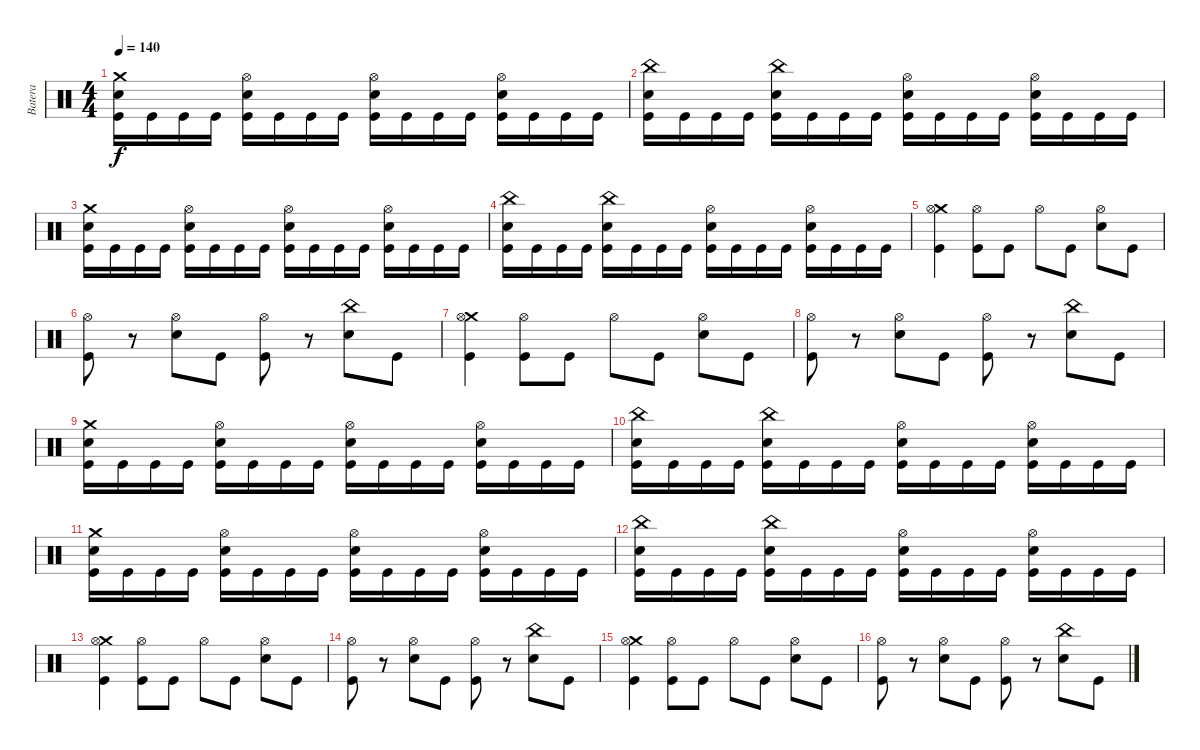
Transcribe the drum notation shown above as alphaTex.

\track ("Batera" "Batera") {instrument percussion}
\staff {score}
\articulation defaults
\ts (4 4)
\tempo 140
\clef neutral
\ks c
("Crash medium (hit)" "Snare (hit) 2" "Kick (hit)").16{dy f} "Kick (hit)".16 "Kick (hit)".16 "Kick (hit)".16 ("Hi-Hat (open)" "Snare (hit) 2" "Kick (hit)").16 "Kick (hit)".16 "Kick (hit)".16 "Kick (hit)".16 ("Hi-Hat (open)" "Snare (hit) 2" "Kick (hit)").16 "Kick (hit)".16 "Kick (hit)".16 "Kick (hit)".16 ("Hi-Hat (open)" "Snare (hit) 2" "Kick (hit)").16 "Kick (hit)".16 "Kick (hit)".16 "Kick (hit)".16 |
("China (hit)" "Snare (hit) 2" "Kick (hit)").16 "Kick (hit)".16 "Kick (hit)".16 "Kick (hit)".16 ("China (hit)" "Snare (hit) 2" "Kick (hit)").16 "Kick (hit)".16 "Kick (hit)".16 "Kick (hit)".16 ("Hi-Hat (open)" "Snare (hit) 2" "Kick (hit)").16 "Kick (hit)".16 "Kick (hit)".16 "Kick (hit)".16 ("Hi-Hat (open)" "Snare (hit) 2" "Kick (hit)").16 "Kick (hit)".16 "Kick (hit)".16 "Kick (hit)".16 |
("Crash medium (hit)" "Snare (hit) 2" "Kick (hit)").16 "Kick (hit)".16 "Kick (hit)".16 "Kick (hit)".16 ("Hi-Hat (open)" "Snare (hit) 2" "Kick (hit)").16 "Kick (hit)".16 "Kick (hit)".16 "Kick (hit)".16 ("Hi-Hat (open)" "Snare (hit) 2" "Kick (hit)").16 "Kick (hit)".16 "Kick (hit)".16 "Kick (hit)".16 ("Hi-Hat (open)" "Snare (hit) 2" "Kick (hit)").16 "Kick (hit)".16 "Kick (hit)".16 "Kick (hit)".16 |
("China (hit)" "Snare (hit) 2" "Kick (hit)").16 "Kick (hit)".16 "Kick (hit)".16 "Kick (hit)".16 ("China (hit)" "Snare (hit) 2" "Kick (hit)").16 "Kick (hit)".16 "Kick (hit)".16 "Kick (hit)".16 ("Hi-Hat (open)" "Snare (hit) 2" "Kick (hit)").16 "Kick (hit)".16 "Kick (hit)".16 "Kick (hit)".16 ("Hi-Hat (open)" "Snare (hit) 2" "Kick (hit)").16 "Kick (hit)".16 "Kick (hit)".16 "Kick (hit)".16 |
("Crash medium (hit)" "Hi-Hat (open)" "Kick (hit)").4 ("Hi-Hat (open)" "Kick (hit)").8 "Kick (hit)".8 "Hi-Hat (open)".8 "Kick (hit)".8 ("Hi-Hat (open)" "Snare (hit) 2").8 "Kick (hit)".8 |
("Hi-Hat (open)" "Kick (hit)").8 r.8 ("Hi-Hat (open)" "Snare (hit) 2").8 "Kick (hit)".8 ("Hi-Hat (open)" "Kick (hit)").8 r.8 ("China (hit)" "Snare (hit) 2").8 "Kick (hit)".8 |
("Crash medium (hit)" "Hi-Hat (open)" "Kick (hit)").4 ("Hi-Hat (open)" "Kick (hit)").8 "Kick (hit)".8 "Hi-Hat (open)".8 "Kick (hit)".8 ("Hi-Hat (open)" "Snare (hit) 2").8 "Kick (hit)".8 |
("Hi-Hat (open)" "Kick (hit)").8 r.8 ("Hi-Hat (open)" "Snare (hit) 2").8 "Kick (hit)".8 ("Hi-Hat (open)" "Kick (hit)").8 r.8 ("China (hit)" "Snare (hit) 2").8 "Kick (hit)".8 |
("Crash medium (hit)" "Snare (hit) 2" "Kick (hit)").16 "Kick (hit)".16 "Kick (hit)".16 "Kick (hit)".16 ("Hi-Hat (open)" "Snare (hit) 2" "Kick (hit)").16 "Kick (hit)".16 "Kick (hit)".16 "Kick (hit)".16 ("Hi-Hat (open)" "Snare (hit) 2" "Kick (hit)").16 "Kick (hit)".16 "Kick (hit)".16 "Kick (hit)".16 ("Hi-Hat (open)" "Snare (hit) 2" "Kick (hit)").16 "Kick (hit)".16 "Kick (hit)".16 "Kick (hit)".16 |
("China (hit)" "Snare (hit) 2" "Kick (hit)").16 "Kick (hit)".16 "Kick (hit)".16 "Kick (hit)".16 ("China (hit)" "Snare (hit) 2" "Kick (hit)").16 "Kick (hit)".16 "Kick (hit)".16 "Kick (hit)".16 ("Hi-Hat (open)" "Snare (hit) 2" "Kick (hit)").16 "Kick (hit)".16 "Kick (hit)".16 "Kick (hit)".16 ("Hi-Hat (open)" "Snare (hit) 2" "Kick (hit)").16 "Kick (hit)".16 "Kick (hit)".16 "Kick (hit)".16 |
("Crash medium (hit)" "Snare (hit) 2" "Kick (hit)").16 "Kick (hit)".16 "Kick (hit)".16 "Kick (hit)".16 ("Hi-Hat (open)" "Snare (hit) 2" "Kick (hit)").16 "Kick (hit)".16 "Kick (hit)".16 "Kick (hit)".16 ("Hi-Hat (open)" "Snare (hit) 2" "Kick (hit)").16 "Kick (hit)".16 "Kick (hit)".16 "Kick (hit)".16 ("Hi-Hat (open)" "Snare (hit) 2" "Kick (hit)").16 "Kick (hit)".16 "Kick (hit)".16 "Kick (hit)".16 |
("China (hit)" "Snare (hit) 2" "Kick (hit)").16 "Kick (hit)".16 "Kick (hit)".16 "Kick (hit)".16 ("China (hit)" "Snare (hit) 2" "Kick (hit)").16 "Kick (hit)".16 "Kick (hit)".16 "Kick (hit)".16 ("Hi-Hat (open)" "Snare (hit) 2" "Kick (hit)").16 "Kick (hit)".16 "Kick (hit)".16 "Kick (hit)".16 ("Hi-Hat (open)" "Snare (hit) 2" "Kick (hit)").16 "Kick (hit)".16 "Kick (hit)".16 "Kick (hit)".16 |
("Crash medium (hit)" "Hi-Hat (open)" "Kick (hit)").4 ("Hi-Hat (open)" "Kick (hit)").8 "Kick (hit)".8 "Hi-Hat (open)".8 "Kick (hit)".8 ("Hi-Hat (open)" "Snare (hit) 2").8 "Kick (hit)".8 |
("Hi-Hat (open)" "Kick (hit)").8 r.8 ("Hi-Hat (open)" "Snare (hit) 2").8 "Kick (hit)".8 ("Hi-Hat (open)" "Kick (hit)").8 r.8 ("China (hit)" "Snare (hit) 2").8 "Kick (hit)".8 |
("Crash medium (hit)" "Hi-Hat (open)" "Kick (hit)").4 ("Hi-Hat (open)" "Kick (hit)").8 "Kick (hit)".8 "Hi-Hat (open)".8 "Kick (hit)".8 ("Hi-Hat (open)" "Snare (hit) 2").8 "Kick (hit)".8 |
("Hi-Hat (open)" "Kick (hit)").8 r.8 ("Hi-Hat (open)" "Snare (hit) 2").8 "Kick (hit)".8 ("Hi-Hat (open)" "Kick (hit)").8 r.8 ("China (hit)" "Snare (hit) 2").8 "Kick (hit)".8
